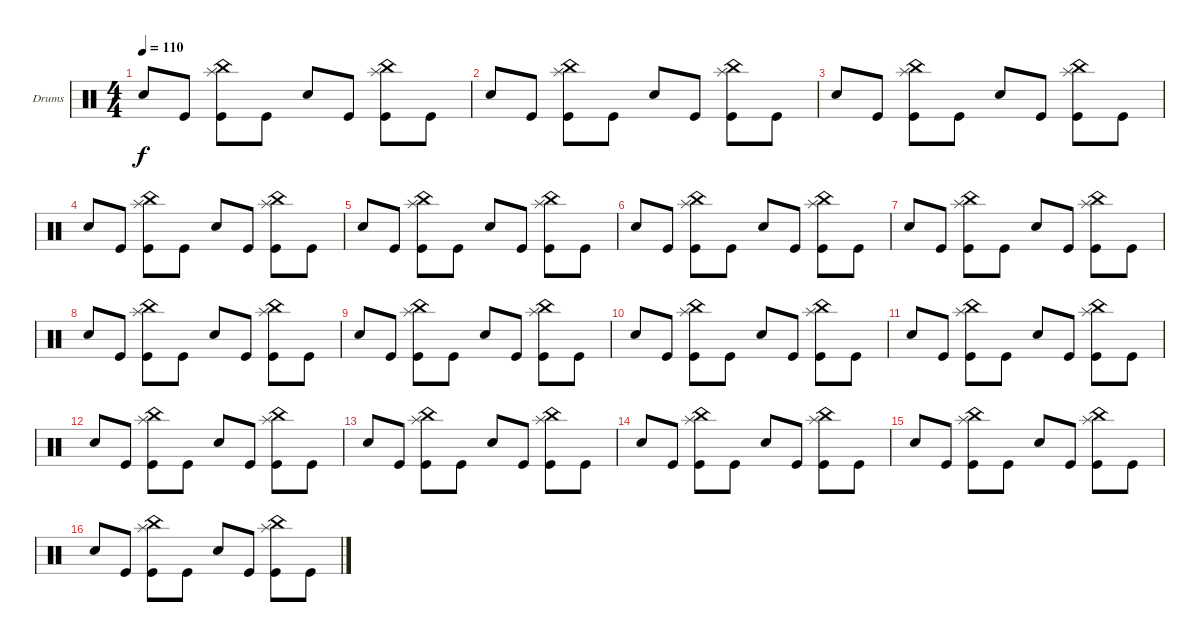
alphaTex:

\defaultSystemsLayout 4
\bracketExtendMode groupsimilarinstruments
\firstSystemTrackNameOrientation horizontal
\otherSystemsTrackNameOrientation horizontal
\track ("Drumkit" "Drums") {instrument percussion}
\staff {score}
\articulation defaults
\ts (4 4)
\tempo 110
\clef neutral
\scale
0.333333
\ks c "Snare (hit) 2".8{dy f} "Kick (hit)".8
("Splash (hit)" "China (hit)" "Kick (hit)").8 "Kick (hit)".8 "Snare (hit) 2".8 "Kick (hit)".8 ("Splash (hit)" "China (hit)" "Kick (hit)").8 "Kick (hit)".8 |
\scale
0.333333 "Snare (hit) 2".8 "Kick (hit)".8 ("Splash (hit)" "China (hit)" "Kick (hit)").8 "Kick (hit)".8 "Snare (hit) 2".8 "Kick (hit)".8 ("Splash (hit)" "China (hit)" "Kick (hit)").8 "Kick (hit)".8 |
\scale
0.333333 "Snare (hit) 2".8 "Kick (hit)".8 ("Splash (hit)" "China (hit)" "Kick (hit)").8 "Kick (hit)".8 "Snare (hit) 2".8 "Kick (hit)".8 ("Splash (hit)" "China (hit)" "Kick (hit)").8 "Kick (hit)".8 |
\scale
0.333333 "Snare (hit) 2".8 "Kick (hit)".8 ("Splash (hit)" "China (hit)" "Kick (hit)").8 "Kick (hit)".8 "Snare (hit) 2".8 "Kick (hit)".8 ("Splash (hit)" "China (hit)" "Kick (hit)").8 "Kick (hit)".8 |
\scale
0.333333 "Snare (hit) 2".8 "Kick (hit)".8 ("Splash (hit)" "China (hit)" "Kick (hit)").8 "Kick (hit)".8 "Snare (hit) 2".8 "Kick (hit)".8 ("Splash (hit)" "China (hit)" "Kick (hit)").8 "Kick (hit)".8 |
\scale
0.333333 "Snare (hit) 2".8 "Kick (hit)".8 ("Splash (hit)" "China (hit)" "Kick (hit)").8 "Kick (hit)".8 "Snare (hit) 2".8 "Kick (hit)".8 ("Splash (hit)" "China (hit)" "Kick (hit)").8 "Kick (hit)".8 |
\scale
0.333333 "Snare (hit) 2".8 "Kick (hit)".8 ("Splash (hit)" "China (hit)" "Kick (hit)").8 "Kick (hit)".8 "Snare (hit) 2".8 "Kick (hit)".8 ("Splash (hit)" "China (hit)" "Kick (hit)").8 "Kick (hit)".8 |
\scale
0.333333 "Snare (hit) 2".8 "Kick (hit)".8 ("Splash (hit)" "China (hit)" "Kick (hit)").8 "Kick (hit)".8 "Snare (hit) 2".8 "Kick (hit)".8 ("Splash (hit)" "China (hit)" "Kick (hit)").8 "Kick (hit)".8 |
\scale
0.333333 "Snare (hit) 2".8 "Kick (hit)".8 ("Splash (hit)" "China (hit)" "Kick (hit)").8 "Kick (hit)".8 "Snare (hit) 2".8 "Kick (hit)".8 ("Splash (hit)" "China (hit)" "Kick (hit)").8 "Kick (hit)".8 |
\scale
0.333333 "Snare (hit) 2".8 "Kick (hit)".8 ("Splash (hit)" "China (hit)" "Kick (hit)").8 "Kick (hit)".8 "Snare (hit) 2".8 "Kick (hit)".8 ("Splash (hit)" "China (hit)" "Kick (hit)").8 "Kick (hit)".8 |
\scale
0.333333 "Snare (hit) 2".8 "Kick (hit)".8 ("Splash (hit)" "China (hit)" "Kick (hit)").8 "Kick (hit)".8 "Snare (hit) 2".8 "Kick (hit)".8 ("Splash (hit)" "China (hit)" "Kick (hit)").8 "Kick (hit)".8 |
\scale
0.333333 "Snare (hit) 2".8 "Kick (hit)".8 ("Splash (hit)" "China (hit)" "Kick (hit)").8 "Kick (hit)".8 "Snare (hit) 2".8 "Kick (hit)".8 ("Splash (hit)" "China (hit)" "Kick (hit)").8 "Kick (hit)".8 |
\scale
0.333333 "Snare (hit) 2".8 "Kick (hit)".8 ("Splash (hit)" "China (hit)" "Kick (hit)").8 "Kick (hit)".8 "Snare (hit) 2".8 "Kick (hit)".8 ("Splash (hit)" "China (hit)" "Kick (hit)").8 "Kick (hit)".8 |
\scale
0.333333 "Snare (hit) 2".8 "Kick (hit)".8 ("Splash (hit)" "China (hit)" "Kick (hit)").8 "Kick (hit)".8 "Snare (hit) 2".8 "Kick (hit)".8 ("Splash (hit)" "China (hit)" "Kick (hit)").8 "Kick (hit)".8 |
\scale
0.333333 "Snare (hit) 2".8 "Kick (hit)".8 ("Splash (hit)" "China (hit)" "Kick (hit)").8 "Kick (hit)".8 "Snare (hit) 2".8 "Kick (hit)".8 ("Splash (hit)" "China (hit)" "Kick (hit)").8 "Kick (hit)".8 |
\scale
0.333333 "Snare (hit) 2".8 "Kick (hit)".8 ("Splash (hit)" "China (hit)" "Kick (hit)").8 "Kick (hit)".8 "Snare (hit) 2".8 "Kick (hit)".8 ("Splash (hit)" "China (hit)" "Kick (hit)").8 "Kick (hit)".8
